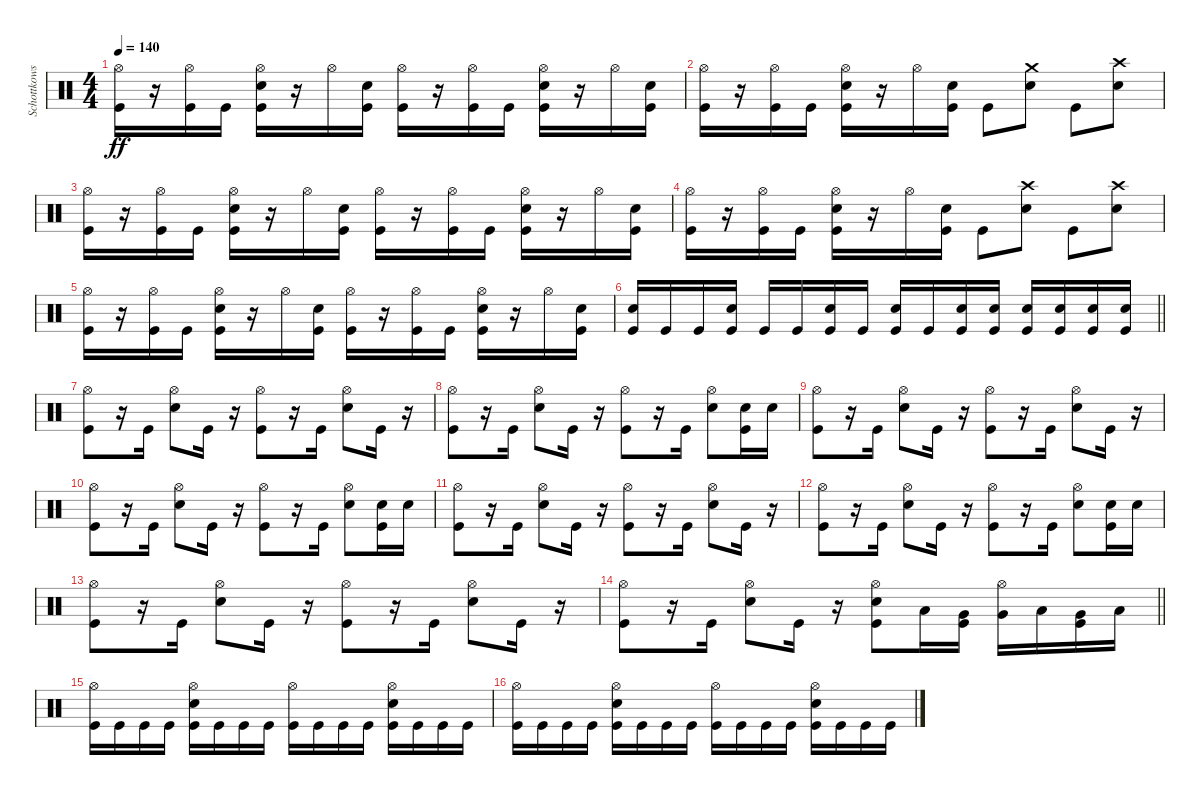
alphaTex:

\track ("Schottkowski" "Schottkows") {instrument percussion}
\staff {score}
\articulation defaults
\ts (4 4)
\tempo 140
\clef neutral
\ks c
("Hi-Hat (open)" "Kick (hit)").16{dy ff} r.16 ("Hi-Hat (open)" "Kick (hit)").16 "Kick (hit)".16 ("Hi-Hat (open)" "Snare (hit) 2" "Kick (hit)").16 r.16 "Hi-Hat (open)".16 ("Snare (hit) 2" "Kick (hit)").16 ("Hi-Hat (open)" "Kick (hit)").16 r.16 ("Hi-Hat (open)" "Kick (hit)").16 "Kick (hit)".16 ("Hi-Hat (open)" "Snare (hit) 2" "Kick (hit)").16 r.16 "Hi-Hat (open)".16 ("Snare (hit) 2" "Kick (hit)").16 |
("Hi-Hat (open)" "Kick (hit)").16 r.16 ("Hi-Hat (open)" "Kick (hit)").16 "Kick (hit)".16 ("Hi-Hat (open)" "Snare (hit) 2" "Kick (hit)").16 r.16 "Hi-Hat (open)".16 ("Snare (hit) 2" "Kick (hit)").16 "Kick (hit)".8 ("Crash medium (hit)" "Snare (hit) 2").8 "Kick (hit)".8 ("Crash high (hit)" "Snare (hit) 2").8 |
("Hi-Hat (open)" "Kick (hit)").16 r.16 ("Hi-Hat (open)" "Kick (hit)").16 "Kick (hit)".16 ("Hi-Hat (open)" "Snare (hit) 2" "Kick (hit)").16 r.16 "Hi-Hat (open)".16 ("Snare (hit) 2" "Kick (hit)").16 ("Hi-Hat (open)" "Kick (hit)").16 r.16 ("Hi-Hat (open)" "Kick (hit)").16 "Kick (hit)".16 ("Hi-Hat (open)" "Snare (hit) 2" "Kick (hit)").16 r.16 "Hi-Hat (open)".16 ("Snare (hit) 2" "Kick (hit)").16 |
("Hi-Hat (open)" "Kick (hit)").16 r.16 ("Hi-Hat (open)" "Kick (hit)").16 "Kick (hit)".16 ("Hi-Hat (open)" "Snare (hit) 2" "Kick (hit)").16 r.16 "Hi-Hat (open)".16 ("Snare (hit) 2" "Kick (hit)").16 "Kick (hit)".8 ("Crash high (hit)" "Snare (hit) 2").8 "Kick (hit)".8 ("Crash high (hit)" "Snare (hit) 2").8 |
("Hi-Hat (open)" "Kick (hit)").16 r.16 ("Hi-Hat (open)" "Kick (hit)").16 "Kick (hit)".16 ("Hi-Hat (open)" "Snare (hit) 2" "Kick (hit)").16 r.16 "Hi-Hat (open)".16 ("Snare (hit) 2" "Kick (hit)").16 ("Hi-Hat (open)" "Kick (hit)").16 r.16 ("Hi-Hat (open)" "Kick (hit)").16 "Kick (hit)".16 ("Hi-Hat (open)" "Snare (hit) 2" "Kick (hit)").16 r.16 "Hi-Hat (open)".16 ("Snare (hit) 2" "Kick (hit)").16 |
\barLineRight lightlight
("Snare (hit) 2" "Kick (hit)").16 "Kick (hit)".16 "Kick (hit)".16 ("Snare (hit) 2" "Kick (hit)").16 "Kick (hit)".16 "Kick (hit)".16 ("Snare (hit) 2" "Kick (hit)").16 "Kick (hit)".16 ("Snare (hit) 2" "Kick (hit)").16 "Kick (hit)".16 ("Snare (hit) 2" "Kick (hit)").16 ("Snare (hit) 2" "Kick (hit)").16 ("Snare (hit) 2" "Kick (hit)").16 ("Snare (hit) 2" "Kick (hit)").16 ("Snare (hit) 2" "Kick (hit)").16 ("Snare (hit) 2" "Kick (hit)").16 |
\section ("" "")
("Hi-Hat (open)" "Kick (hit)").8 r.16 "Kick (hit)".16 ("Hi-Hat (open)" "Snare (hit) 2").8 "Kick (hit)".16 r.16 ("Hi-Hat (open)" "Kick (hit)").8 r.16 "Kick (hit)".16 ("Hi-Hat (open)" "Snare (hit) 2").8 "Kick (hit)".16 r.16 |
("Hi-Hat (open)" "Kick (hit)").8 r.16 "Kick (hit)".16 ("Hi-Hat (open)" "Snare (hit) 2").8 "Kick (hit)".16 r.16 ("Hi-Hat (open)" "Kick (hit)").8 r.16 "Kick (hit)".16 ("Hi-Hat (open)" "Snare (hit) 2").8 ("Snare (hit) 2" "Kick (hit)").16 "Snare (hit) 2".16 |
("Hi-Hat (open)" "Kick (hit)").8 r.16 "Kick (hit)".16 ("Hi-Hat (open)" "Snare (hit) 2").8 "Kick (hit)".16 r.16 ("Hi-Hat (open)" "Kick (hit)").8 r.16 "Kick (hit)".16 ("Hi-Hat (open)" "Snare (hit) 2").8 "Kick (hit)".16 r.16 |
("Hi-Hat (open)" "Kick (hit)").8 r.16 "Kick (hit)".16 ("Hi-Hat (open)" "Snare (hit) 2").8 "Kick (hit)".16 r.16 ("Hi-Hat (open)" "Kick (hit)").8 r.16 "Kick (hit)".16 ("Hi-Hat (open)" "Snare (hit) 2").8 ("Snare (hit) 2" "Kick (hit)").16 "Snare (hit) 2".16 |
("Hi-Hat (open)" "Kick (hit)").8 r.16 "Kick (hit)".16 ("Hi-Hat (open)" "Snare (hit) 2").8 "Kick (hit)".16 r.16 ("Hi-Hat (open)" "Kick (hit)").8 r.16 "Kick (hit)".16 ("Hi-Hat (open)" "Snare (hit) 2").8 "Kick (hit)".16 r.16 |
("Hi-Hat (open)" "Kick (hit)").8 r.16 "Kick (hit)".16 ("Hi-Hat (open)" "Snare (hit) 2").8 "Kick (hit)".16 r.16 ("Hi-Hat (open)" "Kick (hit)").8 r.16 "Kick (hit)".16 ("Hi-Hat (open)" "Snare (hit) 2").8 ("Snare (hit) 2" "Kick (hit)").16 "Snare (hit) 2".16 |
("Hi-Hat (open)" "Kick (hit)").8 r.16 "Kick (hit)".16 ("Hi-Hat (open)" "Snare (hit) 2").8 "Kick (hit)".16 r.16 ("Hi-Hat (open)" "Kick (hit)").8 r.16 "Kick (hit)".16 ("Hi-Hat (open)" "Snare (hit) 2").8 "Kick (hit)".16 r.16 |
\barLineRight lightlight
("Hi-Hat (open)" "Kick (hit)").8 r.16 "Kick (hit)".16 ("Hi-Hat (open)" "Snare (hit) 2").8 "Kick (hit)".16 r.16 ("Hi-Hat (open)" "Snare (hit) 2" "Kick (hit)").8 "Low Tom (hit)".16 ("Very Low Tom (hit)" "Kick (hit)").16 ("Hi-Hat (open)" "Very Low Tom (hit)").16 "Low Tom (hit)".16 ("Very Low Tom (hit)" "Kick (hit)").16 "Low Floor Tom (hit)".16 |
\section ("" "")
("Hi-Hat (open)" "Kick (hit)").16 "Kick (hit)".16 "Kick (hit)".16 "Kick (hit)".16 ("Hi-Hat (open)" "Snare (hit) 2" "Kick (hit)").16 "Kick (hit)".16 "Kick (hit)".16 "Kick (hit)".16 ("Hi-Hat (open)" "Kick (hit)").16 "Kick (hit)".16 "Kick (hit)".16 "Kick (hit)".16 ("Hi-Hat (open)" "Snare (hit) 2" "Kick (hit)").16 "Kick (hit)".16 "Kick (hit)".16 "Kick (hit)".16 |
("Hi-Hat (open)" "Kick (hit)").16 "Kick (hit)".16 "Kick (hit)".16 "Kick (hit)".16 ("Hi-Hat (open)" "Snare (hit) 2" "Kick (hit)").16 "Kick (hit)".16 "Kick (hit)".16 "Kick (hit)".16 ("Hi-Hat (open)" "Kick (hit)").16 "Kick (hit)".16 "Kick (hit)".16 "Kick (hit)".16 ("Hi-Hat (open)" "Snare (hit) 2" "Kick (hit)").16 "Kick (hit)".16 "Kick (hit)".16 "Kick (hit)".16
